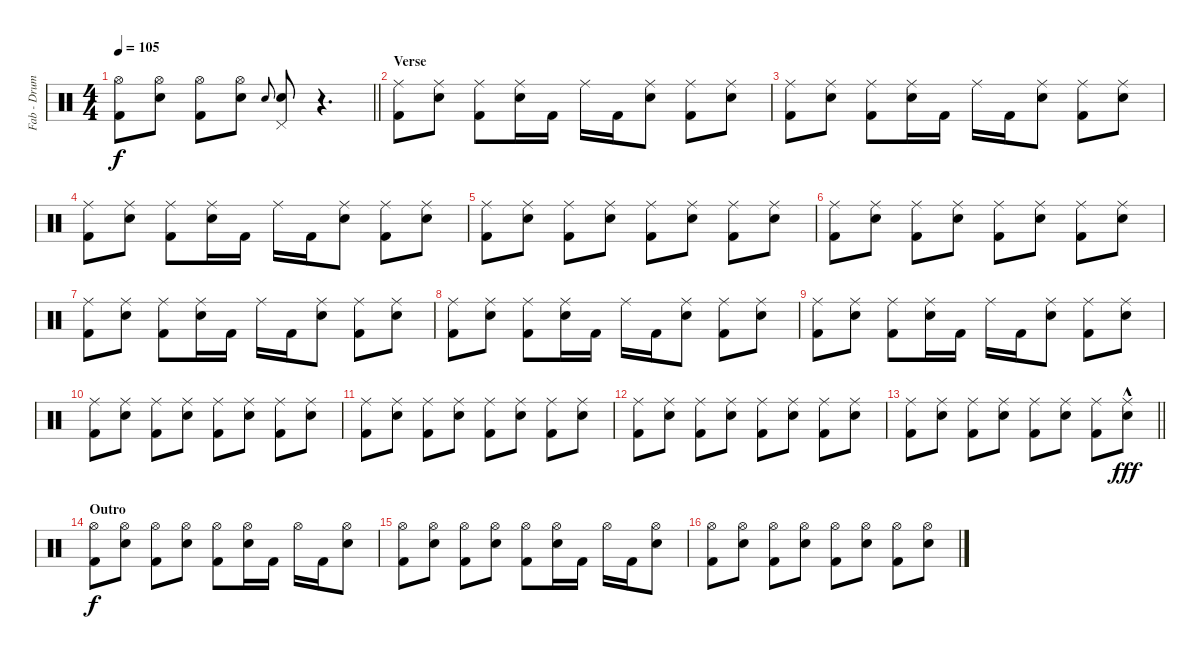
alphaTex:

\track ("Fab - Drums MIDI" "Fab - Drum") {instrument percussion}
\staff {score}
\articulation defaults
\ts (4 4)
\tempo 105
\clef neutral
\barLineRight lightlight
\ks c
("Hi-Hat (open)" "Kick (hit) 2").8{dy f} ("Hi-Hat (open)" "Snare (hit) 2").8 ("Hi-Hat (open)" "Kick (hit) 2").8 ("Hi-Hat (open)" "Snare (hit) 2").8 "Snare (hit) 2".8{gr onbeat} ("Pedal Hi-Hat (hit)" "Snare (hit) 2").8 r.4{d} |
\section ("" "Verse")
("Ride (middle)" "Kick (hit) 2").8 ("Ride (middle)" "Snare (hit) 2").8 ("Ride (middle)" "Kick (hit) 2").8 ("Ride (middle)" "Snare (hit) 2").16 "Kick (hit) 2".16 "Ride (middle)".16 "Kick (hit) 2".16 ("Ride (middle)" "Snare (hit) 2").8 ("Ride (middle)" "Kick (hit) 2").8 ("Ride (middle)" "Snare (hit) 2").8 |
("Ride (middle)" "Kick (hit) 2").8 ("Ride (middle)" "Snare (hit) 2").8 ("Ride (middle)" "Kick (hit) 2").8 ("Ride (middle)" "Snare (hit) 2").16 "Kick (hit) 2".16 "Ride (middle)".16 "Kick (hit) 2".16 ("Ride (middle)" "Snare (hit) 2").8 ("Ride (middle)" "Kick (hit) 2").8 ("Ride (middle)" "Snare (hit) 2").8 |
("Ride (middle)" "Kick (hit) 2").8 ("Ride (middle)" "Snare (hit) 2").8 ("Ride (middle)" "Kick (hit) 2").8 ("Ride (middle)" "Snare (hit) 2").16 "Kick (hit) 2".16 "Ride (middle)".16 "Kick (hit) 2".16 ("Ride (middle)" "Snare (hit) 2").8 ("Ride (middle)" "Kick (hit) 2").8 ("Ride (middle)" "Snare (hit) 2").8 |
("Ride (middle)" "Kick (hit) 2").8 ("Ride (middle)" "Snare (hit) 2").8 ("Ride (middle)" "Kick (hit) 2").8 ("Ride (middle)" "Snare (hit) 2").8 ("Ride (middle)" "Kick (hit) 2").8 ("Ride (middle)" "Snare (hit) 2").8 ("Ride (middle)" "Kick (hit) 2").8 ("Ride (middle)" "Snare (hit) 2").8 |
("Ride (middle)" "Kick (hit) 2").8 ("Ride (middle)" "Snare (hit) 2").8 ("Ride (middle)" "Kick (hit) 2").8 ("Ride (middle)" "Snare (hit) 2").8 ("Ride (middle)" "Kick (hit) 2").8 ("Ride (middle)" "Snare (hit) 2").8 ("Ride (middle)" "Kick (hit) 2").8 ("Ride (middle)" "Snare (hit) 2").8 |
("Ride (middle)" "Kick (hit) 2").8 ("Ride (middle)" "Snare (hit) 2").8 ("Ride (middle)" "Kick (hit) 2").8 ("Ride (middle)" "Snare (hit) 2").16 "Kick (hit) 2".16 "Ride (middle)".16 "Kick (hit) 2".16 ("Ride (middle)" "Snare (hit) 2").8 ("Ride (middle)" "Kick (hit) 2").8 ("Ride (middle)" "Snare (hit) 2").8 |
("Ride (middle)" "Kick (hit) 2").8 ("Ride (middle)" "Snare (hit) 2").8 ("Ride (middle)" "Kick (hit) 2").8 ("Ride (middle)" "Snare (hit) 2").16 "Kick (hit) 2".16 "Ride (middle)".16 "Kick (hit) 2".16 ("Ride (middle)" "Snare (hit) 2").8 ("Ride (middle)" "Kick (hit) 2").8 ("Ride (middle)" "Snare (hit) 2").8 |
("Ride (middle)" "Kick (hit) 2").8 ("Ride (middle)" "Snare (hit) 2").8 ("Ride (middle)" "Kick (hit) 2").8 ("Ride (middle)" "Snare (hit) 2").16 "Kick (hit) 2".16 "Ride (middle)".16 "Kick (hit) 2".16 ("Ride (middle)" "Snare (hit) 2").8 ("Ride (middle)" "Kick (hit) 2").8 ("Ride (middle)" "Snare (hit) 2").8 |
("Ride (middle)" "Kick (hit) 2").8 ("Ride (middle)" "Snare (hit) 2").8 ("Ride (middle)" "Kick (hit) 2").8 ("Ride (middle)" "Snare (hit) 2").8 ("Ride (middle)" "Kick (hit) 2").8 ("Ride (middle)" "Snare (hit) 2").8 ("Ride (middle)" "Kick (hit) 2").8 ("Ride (middle)" "Snare (hit) 2").8 |
("Ride (middle)" "Kick (hit) 2").8 ("Ride (middle)" "Snare (hit) 2").8 ("Ride (middle)" "Kick (hit) 2").8 ("Ride (middle)" "Snare (hit) 2").8 ("Ride (middle)" "Kick (hit) 2").8 ("Ride (middle)" "Snare (hit) 2").8 ("Ride (middle)" "Kick (hit) 2").8 ("Ride (middle)" "Snare (hit) 2").8 |
("Ride (middle)" "Kick (hit) 2").8 ("Ride (middle)" "Snare (hit) 2").8 ("Ride (middle)" "Kick (hit) 2").8 ("Ride (middle)" "Snare (hit) 2").8 ("Ride (middle)" "Kick (hit) 2").8 ("Ride (middle)" "Snare (hit) 2").8 ("Ride (middle)" "Kick (hit) 2").8 ("Ride (middle)" "Snare (hit) 2").8 |
\barLineRight lightlight
("Ride (middle)" "Kick (hit) 2").8 ("Ride (middle)" "Snare (hit) 2").8 ("Ride (middle)" "Kick (hit) 2").8 ("Ride (middle)" "Snare (hit) 2").8 ("Ride (middle)" "Kick (hit) 2").8 ("Ride (middle)" "Snare (hit) 2").8 ("Ride (middle)" "Kick (hit) 2").8 ("Ride (middle)" "Snare (hit) 2"{hac}).8{dy fff} |
\section ("" "Outro")
("Hi-Hat (open)" "Kick (hit) 2").8{dy f} ("Hi-Hat (open)" "Snare (hit) 2").8 ("Hi-Hat (open)" "Kick (hit) 2").8 ("Hi-Hat (open)" "Snare (hit) 2").8 ("Hi-Hat (open)" "Kick (hit) 2").8 ("Hi-Hat (open)" "Snare (hit) 2").16 "Kick (hit) 2".16 "Hi-Hat (open)".16 "Kick (hit) 2".16 ("Hi-Hat (open)" "Snare (hit) 2").8 |
("Hi-Hat (open)" "Kick (hit) 2").8 ("Hi-Hat (open)" "Snare (hit) 2").8 ("Hi-Hat (open)" "Kick (hit) 2").8 ("Hi-Hat (open)" "Snare (hit) 2").8 ("Hi-Hat (open)" "Kick (hit) 2").8 ("Hi-Hat (open)" "Snare (hit) 2").16 "Kick (hit) 2".16 "Hi-Hat (open)".16 "Kick (hit) 2".16 ("Hi-Hat (open)" "Snare (hit) 2").8 |
("Hi-Hat (open)" "Kick (hit) 2").8 ("Hi-Hat (open)" "Snare (hit) 2").8 ("Hi-Hat (open)" "Kick (hit) 2").8 ("Hi-Hat (open)" "Snare (hit) 2").8 ("Hi-Hat (open)" "Kick (hit) 2").8 ("Hi-Hat (open)" "Snare (hit) 2").8 ("Hi-Hat (open)" "Kick (hit) 2").8 ("Hi-Hat (open)" "Snare (hit) 2").8
